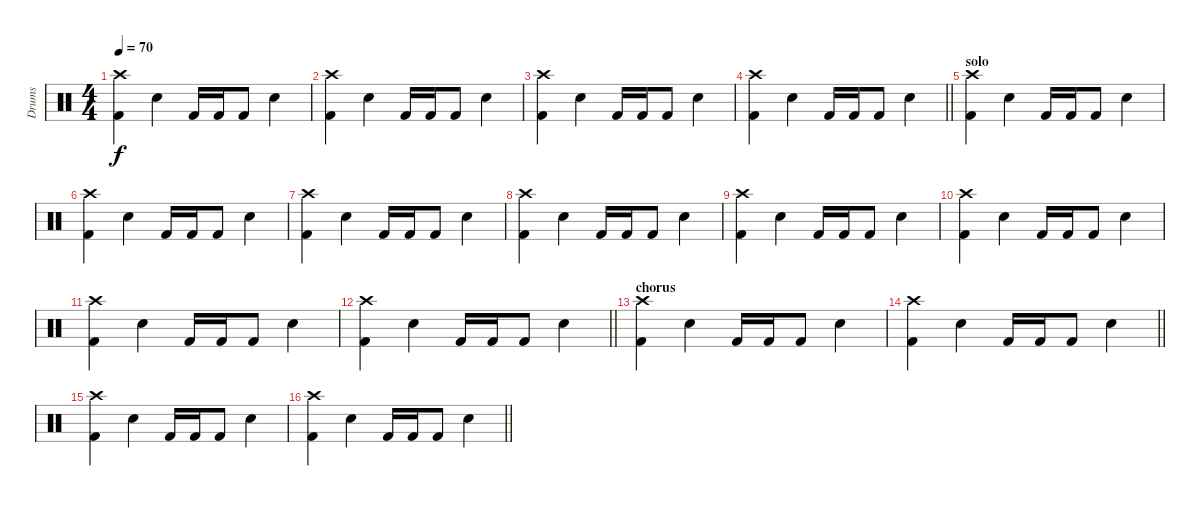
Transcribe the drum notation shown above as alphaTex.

\track ("Drums" "Drums") {instrument percussion}
\staff {score}
\articulation defaults
\ts (4 4)
\tempo 70
\clef neutral
\ks c
("Kick (hit) 2" "Crash high (hit)").4{dy f} "Electric Snare (hit)".4 "Kick (hit) 2".16 "Kick (hit) 2".16 "Kick (hit) 2".8 "Electric Snare (hit)".4 |
("Kick (hit) 2" "Crash high (hit)").4 "Electric Snare (hit)".4 "Kick (hit) 2".16 "Kick (hit) 2".16 "Kick (hit) 2".8 "Electric Snare (hit)".4 |
("Kick (hit) 2" "Crash high (hit)").4 "Electric Snare (hit)".4 "Kick (hit) 2".16 "Kick (hit) 2".16 "Kick (hit) 2".8 "Electric Snare (hit)".4 |
\barLineRight lightlight
("Kick (hit) 2" "Crash high (hit)").4 "Electric Snare (hit)".4 "Kick (hit) 2".16 "Kick (hit) 2".16 "Kick (hit) 2".8 "Electric Snare (hit)".4 |
\section ("" "solo")
("Kick (hit) 2" "Crash high (hit)").4 "Electric Snare (hit)".4 "Kick (hit) 2".16 "Kick (hit) 2".16 "Kick (hit) 2".8 "Electric Snare (hit)".4 |
("Kick (hit) 2" "Crash high (hit)").4 "Electric Snare (hit)".4 "Kick (hit) 2".16 "Kick (hit) 2".16 "Kick (hit) 2".8 "Electric Snare (hit)".4 |
("Kick (hit) 2" "Crash high (hit)").4 "Electric Snare (hit)".4 "Kick (hit) 2".16 "Kick (hit) 2".16 "Kick (hit) 2".8 "Electric Snare (hit)".4 |
("Kick (hit) 2" "Crash high (hit)").4 "Electric Snare (hit)".4 "Kick (hit) 2".16 "Kick (hit) 2".16 "Kick (hit) 2".8 "Electric Snare (hit)".4 |
("Kick (hit) 2" "Crash high (hit)").4 "Electric Snare (hit)".4 "Kick (hit) 2".16 "Kick (hit) 2".16 "Kick (hit) 2".8 "Electric Snare (hit)".4 |
("Kick (hit) 2" "Crash high (hit)").4 "Electric Snare (hit)".4 "Kick (hit) 2".16 "Kick (hit) 2".16 "Kick (hit) 2".8 "Electric Snare (hit)".4 |
("Kick (hit) 2" "Crash high (hit)").4 "Electric Snare (hit)".4 "Kick (hit) 2".16 "Kick (hit) 2".16 "Kick (hit) 2".8 "Electric Snare (hit)".4 |
\barLineRight lightlight
("Kick (hit) 2" "Crash high (hit)").4 "Electric Snare (hit)".4 "Kick (hit) 2".16 "Kick (hit) 2".16 "Kick (hit) 2".8 "Electric Snare (hit)".4 |
\section ("" "chorus")
("Kick (hit) 2" "Crash high (hit)").4 "Electric Snare (hit)".4 "Kick (hit) 2".16 "Kick (hit) 2".16 "Kick (hit) 2".8 "Electric Snare (hit)".4 |
\barLineRight lightlight
("Kick (hit) 2" "Crash high (hit)").4 "Electric Snare (hit)".4 "Kick (hit) 2".16 "Kick (hit) 2".16 "Kick (hit) 2".8 "Electric Snare (hit)".4 |
("Kick (hit) 2" "Crash high (hit)").4 "Electric Snare (hit)".4 "Kick (hit) 2".16 "Kick (hit) 2".16 "Kick (hit) 2".8 "Electric Snare (hit)".4 |
\barLineRight lightlight
("Kick (hit) 2" "Crash high (hit)").4 "Electric Snare (hit)".4 "Kick (hit) 2".16 "Kick (hit) 2".16 "Kick (hit) 2".8 "Electric Snare (hit)".4
